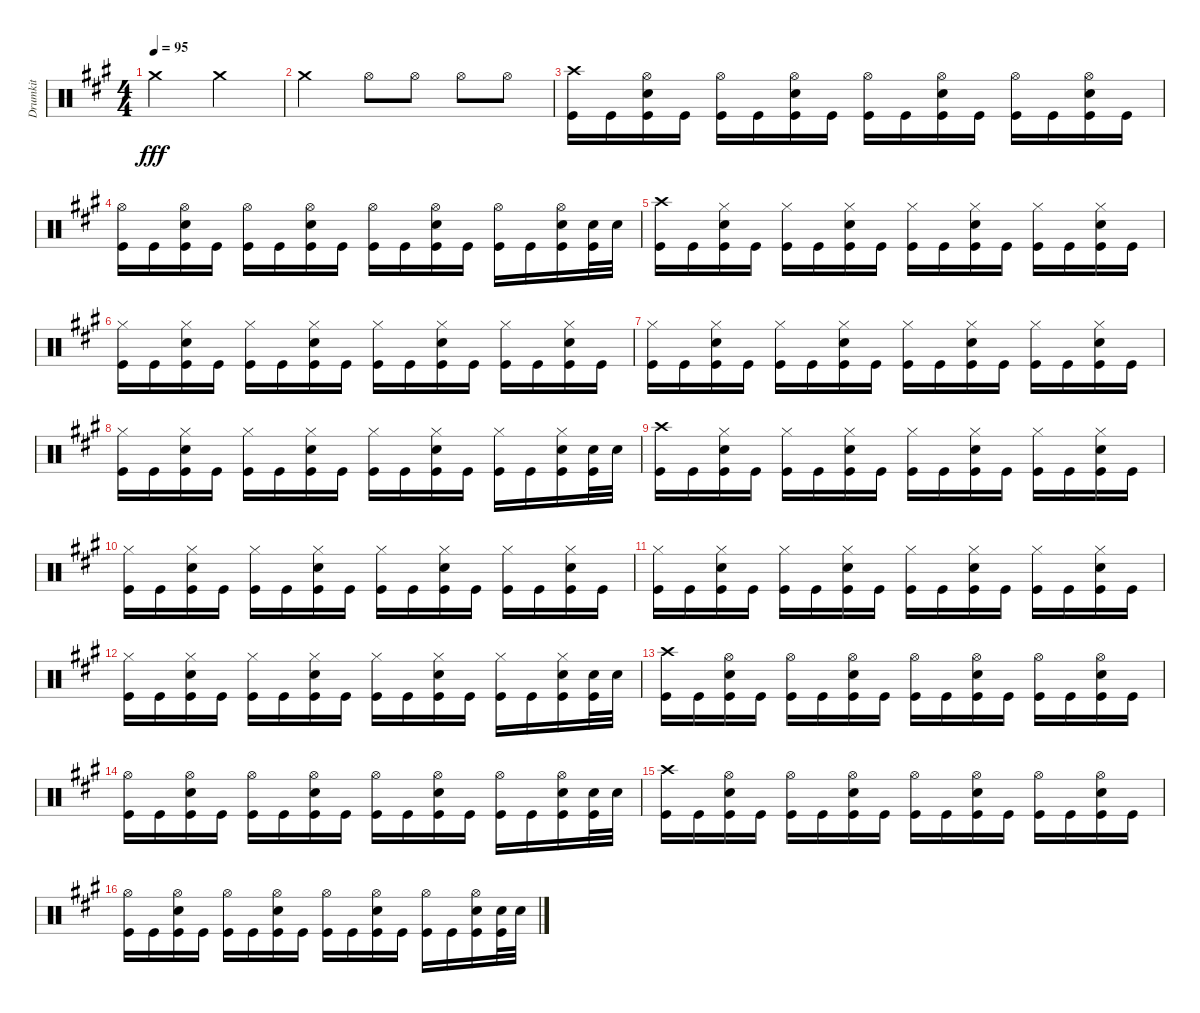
\track ("Drumkit" "Drumkit") {instrument percussion}
\staff {score}
\articulation defaults
\ts (4 4)
\tempo 95
\clef neutral
\ks a "Crash medium (hit)".2{dy fff} "Crash medium (hit)".2
|
"Crash medium (hit)".2 "Hi-Hat (open)".8 "Hi-Hat (open)".8 "Hi-Hat (open)".8 "Hi-Hat (open)".8 |
("Crash high (hit)" "Kick (hit)").16 "Kick (hit)".16 ("Hi-Hat (open)" "Snare (hit) 2" "Kick (hit)").16 "Kick (hit)".16 ("Hi-Hat (open)" "Kick (hit)").16 "Kick (hit)".16 ("Hi-Hat (open)" "Snare (hit) 2" "Kick (hit)").16 "Kick (hit)".16 ("Hi-Hat (open)" "Kick (hit)").16 "Kick (hit)".16 ("Hi-Hat (open)" "Snare (hit) 2" "Kick (hit)").16 "Kick (hit)".16 ("Hi-Hat (open)" "Kick (hit)").16 "Kick (hit)".16 ("Hi-Hat (open)" "Snare (hit) 2" "Kick (hit)").16 "Kick (hit)".16 |
("Hi-Hat (open)" "Kick (hit)").16 "Kick (hit)".16 ("Hi-Hat (open)" "Snare (hit) 2" "Kick (hit)").16 "Kick (hit)".16 ("Hi-Hat (open)" "Kick (hit)").16 "Kick (hit)".16 ("Hi-Hat (open)" "Snare (hit) 2" "Kick (hit)").16 "Kick (hit)".16 ("Hi-Hat (open)" "Kick (hit)").16 "Kick (hit)".16 ("Hi-Hat (open)" "Snare (hit) 2" "Kick (hit)").16 "Kick (hit)".16 ("Hi-Hat (open)" "Kick (hit)").16 "Kick (hit)".16 ("Hi-Hat (open)" "Snare (hit) 2" "Kick (hit)").16 ("Snare (hit) 2" "Kick (hit)").32 "Snare (hit) 2".32 |
("Crash high (hit)" "Kick (hit)").16 "Kick (hit)".16 ("Hi-Hat (closed)" "Snare (hit) 2" "Kick (hit)").16 "Kick (hit)".16 ("Hi-Hat (closed)" "Kick (hit)").16 "Kick (hit)".16 ("Hi-Hat (closed)" "Snare (hit) 2" "Kick (hit)").16 "Kick (hit)".16 ("Hi-Hat (closed)" "Kick (hit)").16 "Kick (hit)".16 ("Hi-Hat (closed)" "Snare (hit) 2" "Kick (hit)").16 "Kick (hit)".16 ("Hi-Hat (closed)" "Kick (hit)").16 "Kick (hit)".16 ("Hi-Hat (closed)" "Snare (hit) 2" "Kick (hit)").16 "Kick (hit)".16 |
("Hi-Hat (closed)" "Kick (hit)").16 "Kick (hit)".16 ("Hi-Hat (closed)" "Snare (hit) 2" "Kick (hit)").16 "Kick (hit)".16 ("Hi-Hat (closed)" "Kick (hit)").16 "Kick (hit)".16 ("Hi-Hat (closed)" "Snare (hit) 2" "Kick (hit)").16 "Kick (hit)".16 ("Hi-Hat (closed)" "Kick (hit)").16 "Kick (hit)".16 ("Hi-Hat (closed)" "Snare (hit) 2" "Kick (hit)").16 "Kick (hit)".16 ("Hi-Hat (closed)" "Kick (hit)").16 "Kick (hit)".16 ("Hi-Hat (closed)" "Snare (hit) 2" "Kick (hit)").16 "Kick (hit)".16 |
("Hi-Hat (closed)" "Kick (hit)").16 "Kick (hit)".16 ("Hi-Hat (closed)" "Snare (hit) 2" "Kick (hit)").16 "Kick (hit)".16 ("Hi-Hat (closed)" "Kick (hit)").16 "Kick (hit)".16 ("Hi-Hat (closed)" "Snare (hit) 2" "Kick (hit)").16 "Kick (hit)".16 ("Hi-Hat (closed)" "Kick (hit)").16 "Kick (hit)".16 ("Hi-Hat (closed)" "Snare (hit) 2" "Kick (hit)").16 "Kick (hit)".16 ("Hi-Hat (closed)" "Kick (hit)").16 "Kick (hit)".16 ("Hi-Hat (closed)" "Snare (hit) 2" "Kick (hit)").16 "Kick (hit)".16 |
("Hi-Hat (closed)" "Kick (hit)").16 "Kick (hit)".16 ("Hi-Hat (closed)" "Snare (hit) 2" "Kick (hit)").16 "Kick (hit)".16 ("Hi-Hat (closed)" "Kick (hit)").16 "Kick (hit)".16 ("Hi-Hat (closed)" "Snare (hit) 2" "Kick (hit)").16 "Kick (hit)".16 ("Hi-Hat (closed)" "Kick (hit)").16 "Kick (hit)".16 ("Hi-Hat (closed)" "Snare (hit) 2" "Kick (hit)").16 "Kick (hit)".16 ("Hi-Hat (closed)" "Kick (hit)").16 "Kick (hit)".16 ("Hi-Hat (closed)" "Snare (hit) 2" "Kick (hit)").16 ("Snare (hit) 2" "Kick (hit)").32 "Snare (hit) 2".32 |
("Crash high (hit)" "Kick (hit)").16 "Kick (hit)".16 ("Hi-Hat (closed)" "Snare (hit) 2" "Kick (hit)").16 "Kick (hit)".16 ("Hi-Hat (closed)" "Kick (hit)").16 "Kick (hit)".16 ("Hi-Hat (closed)" "Snare (hit) 2" "Kick (hit)").16 "Kick (hit)".16 ("Hi-Hat (closed)" "Kick (hit)").16 "Kick (hit)".16 ("Hi-Hat (closed)" "Snare (hit) 2" "Kick (hit)").16 "Kick (hit)".16 ("Hi-Hat (closed)" "Kick (hit)").16 "Kick (hit)".16 ("Hi-Hat (closed)" "Snare (hit) 2" "Kick (hit)").16 "Kick (hit)".16 |
("Hi-Hat (closed)" "Kick (hit)").16 "Kick (hit)".16 ("Hi-Hat (closed)" "Snare (hit) 2" "Kick (hit)").16 "Kick (hit)".16 ("Hi-Hat (closed)" "Kick (hit)").16 "Kick (hit)".16 ("Hi-Hat (closed)" "Snare (hit) 2" "Kick (hit)").16 "Kick (hit)".16 ("Hi-Hat (closed)" "Kick (hit)").16 "Kick (hit)".16 ("Hi-Hat (closed)" "Snare (hit) 2" "Kick (hit)").16 "Kick (hit)".16 ("Hi-Hat (closed)" "Kick (hit)").16 "Kick (hit)".16 ("Hi-Hat (closed)" "Snare (hit) 2" "Kick (hit)").16 "Kick (hit)".16 |
("Hi-Hat (closed)" "Kick (hit)").16 "Kick (hit)".16 ("Hi-Hat (closed)" "Snare (hit) 2" "Kick (hit)").16 "Kick (hit)".16 ("Hi-Hat (closed)" "Kick (hit)").16 "Kick (hit)".16 ("Hi-Hat (closed)" "Snare (hit) 2" "Kick (hit)").16 "Kick (hit)".16 ("Hi-Hat (closed)" "Kick (hit)").16 "Kick (hit)".16 ("Hi-Hat (closed)" "Snare (hit) 2" "Kick (hit)").16 "Kick (hit)".16 ("Hi-Hat (closed)" "Kick (hit)").16 "Kick (hit)".16 ("Hi-Hat (closed)" "Snare (hit) 2" "Kick (hit)").16 "Kick (hit)".16 |
("Hi-Hat (closed)" "Kick (hit)").16 "Kick (hit)".16 ("Hi-Hat (closed)" "Snare (hit) 2" "Kick (hit)").16 "Kick (hit)".16 ("Hi-Hat (closed)" "Kick (hit)").16 "Kick (hit)".16 ("Hi-Hat (closed)" "Snare (hit) 2" "Kick (hit)").16 "Kick (hit)".16 ("Hi-Hat (closed)" "Kick (hit)").16 "Kick (hit)".16 ("Hi-Hat (closed)" "Snare (hit) 2" "Kick (hit)").16 "Kick (hit)".16 ("Hi-Hat (closed)" "Kick (hit)").16 "Kick (hit)".16 ("Hi-Hat (closed)" "Snare (hit) 2" "Kick (hit)").16 ("Snare (hit) 2" "Kick (hit)").32 "Snare (hit) 2".32 |
("Crash high (hit)" "Kick (hit)").16 "Kick (hit)".16 ("Hi-Hat (open)" "Snare (hit) 2" "Kick (hit)").16 "Kick (hit)".16 ("Hi-Hat (open)" "Kick (hit)").16 "Kick (hit)".16 ("Hi-Hat (open)" "Snare (hit) 2" "Kick (hit)").16 "Kick (hit)".16 ("Hi-Hat (open)" "Kick (hit)").16 "Kick (hit)".16 ("Hi-Hat (open)" "Snare (hit) 2" "Kick (hit)").16 "Kick (hit)".16 ("Hi-Hat (open)" "Kick (hit)").16 "Kick (hit)".16 ("Hi-Hat (open)" "Snare (hit) 2" "Kick (hit)").16 "Kick (hit)".16 |
("Hi-Hat (open)" "Kick (hit)").16 "Kick (hit)".16 ("Hi-Hat (open)" "Snare (hit) 2" "Kick (hit)").16 "Kick (hit)".16 ("Hi-Hat (open)" "Kick (hit)").16 "Kick (hit)".16 ("Hi-Hat (open)" "Snare (hit) 2" "Kick (hit)").16 "Kick (hit)".16 ("Hi-Hat (open)" "Kick (hit)").16 "Kick (hit)".16 ("Hi-Hat (open)" "Snare (hit) 2" "Kick (hit)").16 "Kick (hit)".16 ("Hi-Hat (open)" "Kick (hit)").16 "Kick (hit)".16 ("Hi-Hat (open)" "Snare (hit) 2" "Kick (hit)").16 ("Snare (hit) 2" "Kick (hit)").32 "Snare (hit) 2".32 |
("Crash high (hit)" "Kick (hit)").16 "Kick (hit)".16 ("Hi-Hat (open)" "Snare (hit) 2" "Kick (hit)").16 "Kick (hit)".16 ("Hi-Hat (open)" "Kick (hit)").16 "Kick (hit)".16 ("Hi-Hat (open)" "Snare (hit) 2" "Kick (hit)").16 "Kick (hit)".16 ("Hi-Hat (open)" "Kick (hit)").16 "Kick (hit)".16 ("Hi-Hat (open)" "Snare (hit) 2" "Kick (hit)").16 "Kick (hit)".16 ("Hi-Hat (open)" "Kick (hit)").16 "Kick (hit)".16 ("Hi-Hat (open)" "Snare (hit) 2" "Kick (hit)").16 "Kick (hit)".16 |
("Hi-Hat (open)" "Kick (hit)").16 "Kick (hit)".16 ("Hi-Hat (open)" "Snare (hit) 2" "Kick (hit)").16 "Kick (hit)".16 ("Hi-Hat (open)" "Kick (hit)").16 "Kick (hit)".16 ("Hi-Hat (open)" "Snare (hit) 2" "Kick (hit)").16 "Kick (hit)".16 ("Hi-Hat (open)" "Kick (hit)").16 "Kick (hit)".16 ("Hi-Hat (open)" "Snare (hit) 2" "Kick (hit)").16 "Kick (hit)".16 ("Hi-Hat (open)" "Kick (hit)").16 "Kick (hit)".16 ("Hi-Hat (open)" "Snare (hit) 2" "Kick (hit)").16 ("Snare (hit) 2" "Kick (hit)").32 "Snare (hit) 2".32
